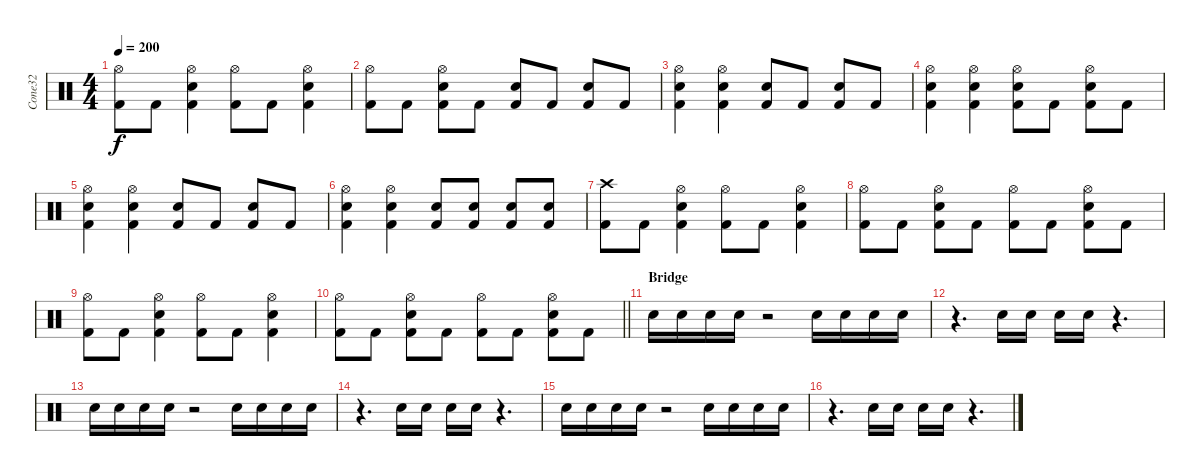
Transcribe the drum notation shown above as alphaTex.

\track ("Cone32" "Cone32") {instrument percussion}
\staff {score}
\articulation defaults
\ts (4 4)
\tempo 200
\clef neutral
\ks c
("Hi-Hat (open)" "Kick (hit) 2").8{dy f} "Kick (hit) 2".8 ("Hi-Hat (open)" "Snare (hit) 2" "Kick (hit) 2").4 ("Hi-Hat (open)" "Kick (hit) 2").8 "Kick (hit) 2".8 ("Hi-Hat (open)" "Snare (hit) 2" "Kick (hit) 2").4 |
("Hi-Hat (open)" "Kick (hit) 2").8 "Kick (hit) 2".8 ("Hi-Hat (open)" "Snare (hit) 2" "Kick (hit) 2").8 "Kick (hit) 2".8 ("Snare (hit) 2" "Kick (hit) 2").8 "Kick (hit) 2".8 ("Snare (hit) 2" "Kick (hit) 2").8 "Kick (hit) 2".8 |
("Hi-Hat (open)" "Snare (hit) 2" "Kick (hit) 2").4 ("Hi-Hat (open)" "Snare (hit) 2" "Kick (hit) 2").4 ("Snare (hit) 2" "Kick (hit) 2").8 "Kick (hit) 2".8 ("Snare (hit) 2" "Kick (hit) 2").8 "Kick (hit) 2".8 |
("Hi-Hat (open)" "Snare (hit) 2" "Kick (hit) 2").4 ("Hi-Hat (open)" "Snare (hit) 2" "Kick (hit) 2").4 ("Hi-Hat (open)" "Snare (hit) 2" "Kick (hit) 2").8 "Kick (hit) 2".8 ("Hi-Hat (open)" "Snare (hit) 2" "Kick (hit) 2").8 "Kick (hit) 2".8 |
("Hi-Hat (open)" "Snare (hit) 2" "Kick (hit) 2").4 ("Hi-Hat (open)" "Snare (hit) 2" "Kick (hit) 2").4 ("Snare (hit) 2" "Kick (hit) 2").8 "Kick (hit) 2".8 ("Snare (hit) 2" "Kick (hit) 2").8 "Kick (hit) 2".8 |
("Hi-Hat (open)" "Snare (hit) 2" "Kick (hit) 2").4 ("Hi-Hat (open)" "Snare (hit) 2" "Kick (hit) 2").4 ("Snare (hit) 2" "Kick (hit) 2").8 ("Snare (hit) 2" "Kick (hit) 2").8 ("Snare (hit) 2" "Kick (hit) 2").8 ("Snare (hit) 2" "Kick (hit) 2").8 |
("Crash high (hit)" "Kick (hit) 2").8 "Kick (hit) 2".8 ("Hi-Hat (open)" "Snare (hit) 2" "Kick (hit) 2").4 ("Hi-Hat (open)" "Kick (hit) 2").8 "Kick (hit) 2".8 ("Hi-Hat (open)" "Snare (hit) 2" "Kick (hit) 2").4 |
("Hi-Hat (open)" "Kick (hit) 2").8 "Kick (hit) 2".8 ("Hi-Hat (open)" "Snare (hit) 2" "Kick (hit) 2").8 "Kick (hit) 2".8 ("Hi-Hat (open)" "Kick (hit) 2").8 "Kick (hit) 2".8 ("Hi-Hat (open)" "Snare (hit) 2" "Kick (hit) 2").8 "Kick (hit) 2".8 |
("Hi-Hat (open)" "Kick (hit) 2").8 "Kick (hit) 2".8 ("Hi-Hat (open)" "Snare (hit) 2" "Kick (hit) 2").4 ("Hi-Hat (open)" "Kick (hit) 2").8 "Kick (hit) 2".8 ("Hi-Hat (open)" "Snare (hit) 2" "Kick (hit) 2").4 |
\barLineRight lightlight
("Hi-Hat (open)" "Kick (hit) 2").8 "Kick (hit) 2".8 ("Hi-Hat (open)" "Snare (hit) 2" "Kick (hit) 2").8 "Kick (hit) 2".8 ("Hi-Hat (open)" "Kick (hit) 2").8 "Kick (hit) 2".8 ("Hi-Hat (open)" "Snare (hit) 2" "Kick (hit) 2").8 "Kick (hit) 2".8 |
\section ("" "Bridge")
"Snare (hit) 2".16 "Snare (hit) 2".16 "Snare (hit) 2".16 "Snare (hit) 2".16 r.2 "Snare (hit) 2".16 "Snare (hit) 2".16 "Snare (hit) 2".16 "Snare (hit) 2".16 |
r.4{d} "Snare (hit) 2".16 "Snare (hit) 2".16 "Snare (hit) 2".16 "Snare (hit) 2".16 r.4{d} |
"Snare (hit) 2".16 "Snare (hit) 2".16 "Snare (hit) 2".16 "Snare (hit) 2".16 r.2 "Snare (hit) 2".16 "Snare (hit) 2".16 "Snare (hit) 2".16 "Snare (hit) 2".16 |
r.4{d} "Snare (hit) 2".16 "Snare (hit) 2".16 "Snare (hit) 2".16 "Snare (hit) 2".16 r.4{d} |
"Snare (hit) 2".16 "Snare (hit) 2".16 "Snare (hit) 2".16 "Snare (hit) 2".16 r.2 "Snare (hit) 2".16 "Snare (hit) 2".16 "Snare (hit) 2".16 "Snare (hit) 2".16 |
r.4{d} "Snare (hit) 2".16 "Snare (hit) 2".16 "Snare (hit) 2".16 "Snare (hit) 2".16 r.4{d}
